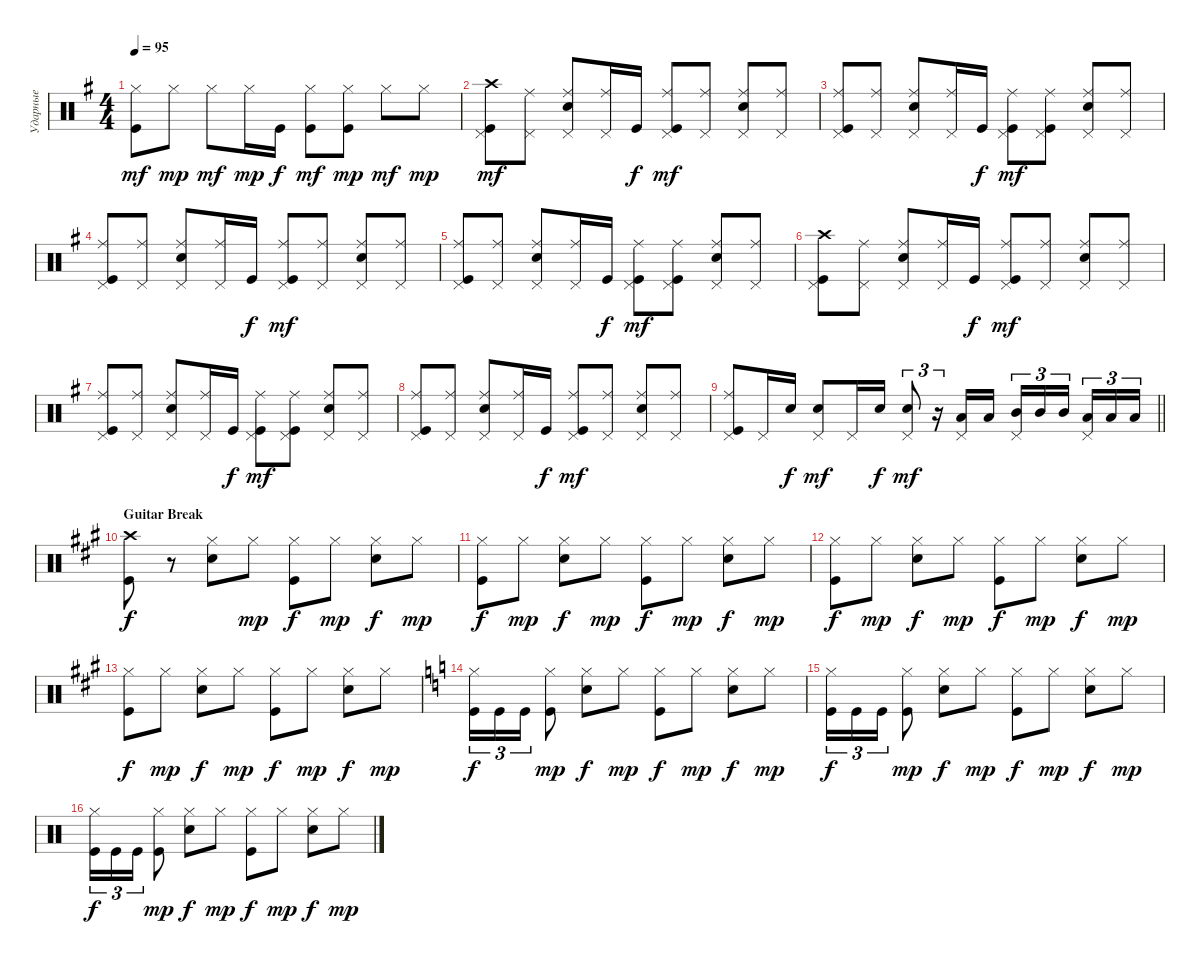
\track ("Ударные" "Ударные") {instrument percussion}
\staff {score}
\articulation defaults
\ts (4 4)
\tempo 95
\clef neutral
\ks eminor
("Hi-Hat (closed)" "Kick (hit)").8{dy mf} "Hi-Hat (closed)".8{dy mp} "Hi-Hat (closed)".8{dy mf} "Hi-Hat (closed)".16{dy mp} "Kick (hit)".16{dy f} ("Hi-Hat (closed)" "Kick (hit)").8{dy mf} ("Hi-Hat (closed)" "Kick (hit)").8{dy mp} "Hi-Hat (closed)".8{dy mf} "Hi-Hat (closed)".8{dy mp} |
("Pedal Hi-Hat (hit)" "Crash high (hit)" "Kick (hit)").8{dy mf} ("Pedal Hi-Hat (hit)" "Ride (middle)").8 ("Pedal Hi-Hat (hit)" "Ride (middle)" "Snare (hit) 2").8 ("Pedal Hi-Hat (hit)" "Ride (middle)").16 "Kick (hit)".16{dy f} ("Pedal Hi-Hat (hit)" "Ride (middle)" "Kick (hit)").8{dy mf} ("Pedal Hi-Hat (hit)" "Ride (middle)").8 ("Pedal Hi-Hat (hit)" "Ride (middle)" "Snare (hit) 2").8 ("Pedal Hi-Hat (hit)" "Ride (middle)").8 |
("Pedal Hi-Hat (hit)" "Ride (middle)" "Kick (hit)").8 ("Pedal Hi-Hat (hit)" "Ride (middle)").8 ("Pedal Hi-Hat (hit)" "Ride (middle)" "Snare (hit) 2").8 ("Pedal Hi-Hat (hit)" "Ride (middle)").16 "Kick (hit)".16{dy f} ("Pedal Hi-Hat (hit)" "Ride (middle)" "Kick (hit)").8{dy mf} ("Pedal Hi-Hat (hit)" "Ride (middle)" "Kick (hit)").8 ("Pedal Hi-Hat (hit)" "Ride (middle)" "Snare (hit) 2").8 ("Pedal Hi-Hat (hit)" "Ride (middle)").8 |
("Pedal Hi-Hat (hit)" "Ride (middle)" "Kick (hit)").8 ("Pedal Hi-Hat (hit)" "Ride (middle)").8 ("Pedal Hi-Hat (hit)" "Ride (middle)" "Snare (hit) 2").8 ("Pedal Hi-Hat (hit)" "Ride (middle)").16 "Kick (hit)".16{dy f} ("Pedal Hi-Hat (hit)" "Ride (middle)" "Kick (hit)").8{dy mf} ("Pedal Hi-Hat (hit)" "Ride (middle)").8 ("Pedal Hi-Hat (hit)" "Ride (middle)" "Snare (hit) 2").8 ("Pedal Hi-Hat (hit)" "Ride (middle)").8 |
("Pedal Hi-Hat (hit)" "Ride (middle)" "Kick (hit)").8 ("Pedal Hi-Hat (hit)" "Ride (middle)").8 ("Pedal Hi-Hat (hit)" "Ride (middle)" "Snare (hit) 2").8 ("Pedal Hi-Hat (hit)" "Ride (middle)").16 "Kick (hit)".16{dy f} ("Pedal Hi-Hat (hit)" "Ride (middle)" "Kick (hit)").8{dy mf} ("Pedal Hi-Hat (hit)" "Ride (middle)" "Kick (hit)").8 ("Pedal Hi-Hat (hit)" "Ride (middle)" "Snare (hit) 2").8 ("Pedal Hi-Hat (hit)" "Ride (middle)").8 |
("Pedal Hi-Hat (hit)" "Crash high (hit)" "Kick (hit)").8 ("Pedal Hi-Hat (hit)" "Ride (middle)").8 ("Pedal Hi-Hat (hit)" "Ride (middle)" "Snare (hit) 2").8 ("Pedal Hi-Hat (hit)" "Ride (middle)").16 "Kick (hit)".16{dy f} ("Pedal Hi-Hat (hit)" "Ride (middle)" "Kick (hit)").8{dy mf} ("Pedal Hi-Hat (hit)" "Ride (middle)").8 ("Pedal Hi-Hat (hit)" "Ride (middle)" "Snare (hit) 2").8 ("Pedal Hi-Hat (hit)" "Ride (middle)").8 |
("Pedal Hi-Hat (hit)" "Ride (middle)" "Kick (hit)").8 ("Pedal Hi-Hat (hit)" "Ride (middle)").8 ("Pedal Hi-Hat (hit)" "Ride (middle)" "Snare (hit) 2").8 ("Pedal Hi-Hat (hit)" "Ride (middle)").16 "Kick (hit)".16{dy f} ("Pedal Hi-Hat (hit)" "Ride (middle)" "Kick (hit)").8{dy mf} ("Pedal Hi-Hat (hit)" "Ride (middle)" "Kick (hit)").8 ("Pedal Hi-Hat (hit)" "Ride (middle)" "Snare (hit) 2").8 ("Pedal Hi-Hat (hit)" "Ride (middle)").8 |
("Pedal Hi-Hat (hit)" "Ride (middle)" "Kick (hit)").8 ("Pedal Hi-Hat (hit)" "Ride (middle)").8 ("Pedal Hi-Hat (hit)" "Ride (middle)" "Snare (hit) 2").8 ("Pedal Hi-Hat (hit)" "Ride (middle)").16 "Kick (hit)".16{dy f} ("Pedal Hi-Hat (hit)" "Ride (middle)" "Kick (hit)").8{dy mf} ("Pedal Hi-Hat (hit)" "Ride (middle)").8 ("Pedal Hi-Hat (hit)" "Ride (middle)" "Snare (hit) 2").8 ("Pedal Hi-Hat (hit)" "Ride (middle)").8 |
\barLineRight lightlight
("Pedal Hi-Hat (hit)" "Ride (middle)" "Kick (hit)").8 "Pedal Hi-Hat (hit)".16 "Snare (hit) 2".16{dy f} ("Pedal Hi-Hat (hit)" "Snare (hit) 2").8{dy mf} "Pedal Hi-Hat (hit)".16 "Snare (hit) 2".16{dy f} ("Pedal Hi-Hat (hit)" "Snare (hit) 2").8{tu (3 2) dy mf} r.16{tu (3 2)} ("Low Tom (hit)" "Pedal Hi-Hat (hit)").16 "Low Tom (hit)".16 ("Mid Tom (hit)" "Pedal Hi-Hat (hit)").16{tu (3 2)} "Mid Tom (hit)".16{tu (3 2)} "Mid Tom (hit)".16{tu (3 2) beam splitsecondary} ("Low Tom (hit)" "Pedal Hi-Hat (hit)").16{tu (3 2)} "Low Tom (hit)".16{tu (3 2)} "Low Tom (hit)".16{tu (3 2)} |
\section ("" "Guitar Break")
\ks f#minor
("Kick (hit)" "Crash high (hit)").8{dy f} r.8 ("Snare (hit) 2" "Hi-Hat (closed)").8 "Hi-Hat (closed)".8{dy mp} ("Kick (hit)" "Hi-Hat (closed)").8{dy f} "Hi-Hat (closed)".8{dy mp} ("Snare (hit) 2" "Hi-Hat (closed)").8{dy f} "Hi-Hat (closed)".8{dy mp} |
("Kick (hit)" "Hi-Hat (closed)").8{dy f} "Hi-Hat (closed)".8{dy mp} ("Snare (hit) 2" "Hi-Hat (closed)").8{dy f} "Hi-Hat (closed)".8{dy mp} ("Kick (hit)" "Hi-Hat (closed)").8{dy f} "Hi-Hat (closed)".8{dy mp} ("Snare (hit) 2" "Hi-Hat (closed)").8{dy f} "Hi-Hat (closed)".8{dy mp} |
("Kick (hit)" "Hi-Hat (closed)").8{dy f} "Hi-Hat (closed)".8{dy mp} ("Snare (hit) 2" "Hi-Hat (closed)").8{dy f} "Hi-Hat (closed)".8{dy mp} ("Kick (hit)" "Hi-Hat (closed)").8{dy f} "Hi-Hat (closed)".8{dy mp} ("Snare (hit) 2" "Hi-Hat (closed)").8{dy f} "Hi-Hat (closed)".8{dy mp} |
("Kick (hit)" "Hi-Hat (closed)").8{dy f} "Hi-Hat (closed)".8{dy mp} ("Snare (hit) 2" "Hi-Hat (closed)").8{dy f} "Hi-Hat (closed)".8{dy mp} ("Kick (hit)" "Hi-Hat (closed)").8{dy f} "Hi-Hat (closed)".8{dy mp} ("Snare (hit) 2" "Hi-Hat (closed)").8{dy f} "Hi-Hat (closed)".8{dy mp} |
\ks aminor
("Kick (hit)" "Hi-Hat (closed)").16{tu (3 2) dy f} "Kick (hit)".16{tu (3 2)} "Kick (hit)".16{tu (3 2)} ("Hi-Hat (closed)" "Kick (hit)").8{dy mp} ("Snare (hit) 2" "Hi-Hat (closed)").8{dy f} "Hi-Hat (closed)".8{dy mp} ("Kick (hit)" "Hi-Hat (closed)").8{dy f} "Hi-Hat (closed)".8{dy mp} ("Snare (hit) 2" "Hi-Hat (closed)").8{dy f} "Hi-Hat (closed)".8{dy mp} |
("Kick (hit)" "Hi-Hat (closed)").16{tu (3 2) dy f} "Kick (hit)".16{tu (3 2)} "Kick (hit)".16{tu (3 2)} ("Hi-Hat (closed)" "Kick (hit)").8{dy mp} ("Snare (hit) 2" "Hi-Hat (closed)").8{dy f} "Hi-Hat (closed)".8{dy mp} ("Kick (hit)" "Hi-Hat (closed)").8{dy f} "Hi-Hat (closed)".8{dy mp} ("Snare (hit) 2" "Hi-Hat (closed)").8{dy f} "Hi-Hat (closed)".8{dy mp} |
("Kick (hit)" "Hi-Hat (closed)").16{tu (3 2) dy f} "Kick (hit)".16{tu (3 2)} "Kick (hit)".16{tu (3 2)} ("Hi-Hat (closed)" "Kick (hit)").8{dy mp} ("Snare (hit) 2" "Hi-Hat (closed)").8{dy f} "Hi-Hat (closed)".8{dy mp} ("Kick (hit)" "Hi-Hat (closed)").8{dy f} "Hi-Hat (closed)".8{dy mp} ("Snare (hit) 2" "Hi-Hat (closed)").8{dy f} "Hi-Hat (closed)".8{dy mp}
